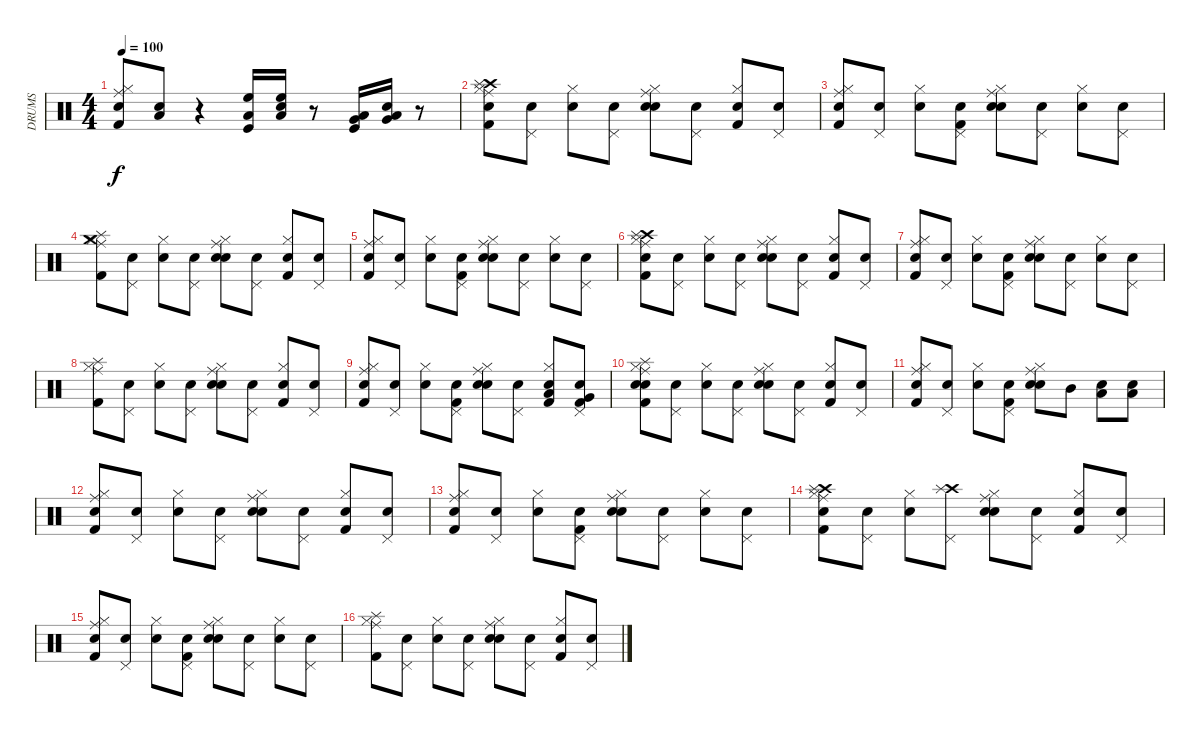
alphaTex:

\track ("DRUMS" "DRUMS") {instrument percussion}
\staff {score}
\articulation defaults
\ts (4 4)
\tempo 100
\clef neutral
\ks c
("Snare (hit)" "Ride (middle)" "Hi-Hat (closed)" "Kick (hit) 2").8{dy f} ("Snare (hit)" "Low Tom (hit)").8 r.4 ("High Floor Tom (hit)" "Kick (hit)" "Low Tom (hit)").16 ("Snare (hit)" "High Floor Tom (hit)" "Low Tom (hit)").16 r.8 ("Very Low Tom (hit)" "Kick (hit)" "Low Tom (hit)").16 ("Snare (hit)" "Very Low Tom (hit)" "Low Tom (hit)").16 r.8 |
("Ride (middle)" "Hi-Hat (closed)" "Kick (hit) 2" "Snare (hit) 2" "Crash high (hit)" "Splash (hit)").8 ("Snare (hit)" "Pedal Hi-Hat (hit)").8 ("Snare (hit)" "Hi-Hat (closed)").8 ("Snare (hit)" "Pedal Hi-Hat (hit)").8 ("Snare (hit)" "Ride (middle)" "Hi-Hat (closed)" "Snare (hit) 2").8 ("Snare (hit)" "Pedal Hi-Hat (hit)").8 ("Snare (hit)" "Hi-Hat (closed)" "Kick (hit) 2").8 ("Snare (hit)" "Pedal Hi-Hat (hit)").8 |
("Snare (hit)" "Ride (middle)" "Hi-Hat (closed)" "Kick (hit) 2").8 ("Snare (hit)" "Pedal Hi-Hat (hit)").8 ("Snare (hit)" "Hi-Hat (closed)").8 ("Snare (hit)" "Pedal Hi-Hat (hit)" "Kick (hit) 2").8 ("Snare (hit)" "Ride (middle)" "Hi-Hat (closed)" "Snare (hit) 2").8 ("Snare (hit)" "Pedal Hi-Hat (hit)").8 ("Snare (hit)" "Hi-Hat (closed)").8 ("Snare (hit)" "Pedal Hi-Hat (hit)").8 |
("Crash medium (hit)" "Splash (hit)" "Kick (hit) 2" "Ride (middle)" "Hi-Hat (closed)").8 ("Snare (hit)" "Pedal Hi-Hat (hit)").8 ("Snare (hit)" "Hi-Hat (closed)").8 ("Snare (hit)" "Pedal Hi-Hat (hit)").8 ("Snare (hit)" "Ride (middle)" "Hi-Hat (closed)" "Snare (hit) 2").8 ("Snare (hit)" "Pedal Hi-Hat (hit)").8 ("Snare (hit)" "Hi-Hat (closed)" "Kick (hit) 2").8 ("Snare (hit)" "Pedal Hi-Hat (hit)").8 |
("Snare (hit)" "Ride (middle)" "Hi-Hat (closed)" "Kick (hit) 2").8 ("Snare (hit)" "Pedal Hi-Hat (hit)").8 ("Snare (hit)" "Hi-Hat (closed)").8 ("Snare (hit)" "Pedal Hi-Hat (hit)" "Kick (hit) 2").8 ("Snare (hit)" "Ride (middle)" "Hi-Hat (closed)" "Snare (hit) 2").8 ("Snare (hit)" "Pedal Hi-Hat (hit)").8 ("Snare (hit)" "Hi-Hat (closed)").8 ("Snare (hit)" "Pedal Hi-Hat (hit)").8 |
("Snare (hit)" "Hi-Hat (closed)" "Ride (middle)" "Kick (hit) 2" "Crash high (hit)" "Splash (hit)").8 ("Snare (hit)" "Pedal Hi-Hat (hit)").8 ("Snare (hit)" "Hi-Hat (closed)").8 ("Snare (hit)" "Pedal Hi-Hat (hit)").8 ("Snare (hit)" "Ride (middle)" "Hi-Hat (closed)" "Snare (hit) 2").8 ("Snare (hit)" "Pedal Hi-Hat (hit)").8 ("Snare (hit)" "Hi-Hat (closed)" "Kick (hit) 2").8 ("Snare (hit)" "Pedal Hi-Hat (hit)").8 |
("Snare (hit)" "Ride (middle)" "Hi-Hat (closed)" "Kick (hit) 2").8 ("Snare (hit)" "Pedal Hi-Hat (hit)").8 ("Snare (hit)" "Hi-Hat (closed)").8 ("Snare (hit)" "Pedal Hi-Hat (hit)" "Kick (hit) 2").8 ("Snare (hit)" "Ride (middle)" "Hi-Hat (closed)" "Snare (hit) 2").8 ("Snare (hit)" "Pedal Hi-Hat (hit)").8 ("Snare (hit)" "Hi-Hat (closed)").8 ("Snare (hit)" "Pedal Hi-Hat (hit)").8 |
("Splash (hit)" "Kick (hit) 2" "Ride (middle)" "Hi-Hat (closed)").8 ("Snare (hit)" "Pedal Hi-Hat (hit)").8 ("Snare (hit)" "Hi-Hat (closed)").8 ("Snare (hit)" "Pedal Hi-Hat (hit)").8 ("Snare (hit)" "Ride (middle)" "Hi-Hat (closed)" "Snare (hit) 2").8 ("Snare (hit)" "Pedal Hi-Hat (hit)").8 ("Snare (hit)" "Hi-Hat (closed)" "Kick (hit) 2").8 ("Snare (hit)" "Pedal Hi-Hat (hit)").8 |
("Snare (hit)" "Ride (middle)" "Hi-Hat (closed)" "Kick (hit) 2").8 ("Snare (hit)" "Pedal Hi-Hat (hit)").8 ("Snare (hit)" "Hi-Hat (closed)").8 ("Snare (hit)" "Pedal Hi-Hat (hit)" "Kick (hit) 2").8 ("Snare (hit)" "Ride (middle)" "Hi-Hat (closed)" "Snare (hit) 2").8 ("Snare (hit)" "Pedal Hi-Hat (hit)").8 ("Snare (hit)" "Kick (hit) 2" "Low Tom (hit)" "Hi-Hat (closed)").8 ("Snare (hit)" "Very Low Tom (hit)" "Kick (hit) 2" "Pedal Hi-Hat (hit)").8 |
("Snare (hit)" "Ride (middle)" "Hi-Hat (closed)" "Kick (hit) 2" "Snare (hit) 2" "Splash (hit)").8 ("Snare (hit)" "Pedal Hi-Hat (hit)").8 ("Snare (hit)" "Hi-Hat (closed)").8 ("Snare (hit)" "Pedal Hi-Hat (hit)").8 ("Snare (hit)" "Ride (middle)" "Hi-Hat (closed)" "Snare (hit) 2").8 ("Snare (hit)" "Pedal Hi-Hat (hit)").8 ("Snare (hit)" "Hi-Hat (closed)" "Kick (hit) 2").8 ("Snare (hit)" "Pedal Hi-Hat (hit)").8 |
("Snare (hit)" "Ride (middle)" "Hi-Hat (closed)" "Kick (hit) 2").8 ("Snare (hit)" "Pedal Hi-Hat (hit)").8 ("Snare (hit)" "Hi-Hat (closed)").8 ("Snare (hit)" "Pedal Hi-Hat (hit)" "Kick (hit) 2").8 ("Snare (hit)" "Ride (middle)" "Hi-Hat (closed)" "Snare (hit) 2").8 "Mid Tom (hit)".8 ("Snare (hit)" "Low Tom (hit)").8 ("Snare (hit)" "Low Tom (hit)").8 |
("Snare (hit)" "Kick (hit) 2" "Ride (middle)" "Hi-Hat (closed)").8 ("Snare (hit)" "Pedal Hi-Hat (hit)").8 ("Snare (hit)" "Hi-Hat (closed)").8 ("Snare (hit)" "Pedal Hi-Hat (hit)").8 ("Snare (hit)" "Ride (middle)" "Hi-Hat (closed)" "Snare (hit) 2").8 ("Snare (hit)" "Pedal Hi-Hat (hit)").8 ("Snare (hit)" "Hi-Hat (closed)" "Kick (hit) 2").8 ("Snare (hit)" "Pedal Hi-Hat (hit)").8 |
("Snare (hit)" "Ride (middle)" "Hi-Hat (closed)" "Kick (hit) 2").8 ("Snare (hit)" "Pedal Hi-Hat (hit)").8 ("Snare (hit)" "Hi-Hat (closed)").8 ("Snare (hit)" "Pedal Hi-Hat (hit)" "Kick (hit) 2").8 ("Snare (hit)" "Ride (middle)" "Hi-Hat (closed)" "Snare (hit) 2").8 ("Snare (hit)" "Pedal Hi-Hat (hit)").8 ("Snare (hit)" "Hi-Hat (closed)").8 ("Snare (hit)" "Pedal Hi-Hat (hit)").8 |
("Snare (hit)" "Hi-Hat (closed)" "Ride (middle)" "Kick (hit) 2" "Crash high (hit)" "Splash (hit)").8 ("Snare (hit)" "Pedal Hi-Hat (hit)").8 ("Snare (hit)" "Hi-Hat (closed)").8 ("Crash high (hit)" "Splash (hit)" "Pedal Hi-Hat (hit)").8 ("Snare (hit)" "Ride (middle)" "Hi-Hat (closed)" "Snare (hit) 2").8 ("Snare (hit)" "Pedal Hi-Hat (hit)").8 ("Snare (hit)" "Hi-Hat (closed)" "Kick (hit) 2").8 ("Snare (hit)" "Pedal Hi-Hat (hit)").8 |
("Snare (hit)" "Ride (middle)" "Hi-Hat (closed)" "Kick (hit) 2").8 ("Snare (hit)" "Pedal Hi-Hat (hit)").8 ("Snare (hit)" "Hi-Hat (closed)").8 ("Snare (hit)" "Pedal Hi-Hat (hit)" "Kick (hit) 2").8 ("Snare (hit)" "Ride (middle)" "Hi-Hat (closed)" "Snare (hit) 2").8 ("Snare (hit)" "Pedal Hi-Hat (hit)").8 ("Snare (hit)" "Hi-Hat (closed)").8 ("Snare (hit)" "Pedal Hi-Hat (hit)").8 |
("Splash (hit)" "Kick (hit) 2" "Ride (middle)" "Hi-Hat (closed)").8 ("Snare (hit)" "Pedal Hi-Hat (hit)").8 ("Snare (hit)" "Hi-Hat (closed)").8 ("Snare (hit)" "Pedal Hi-Hat (hit)").8 ("Snare (hit)" "Ride (middle)" "Hi-Hat (closed)" "Snare (hit) 2").8 ("Snare (hit)" "Pedal Hi-Hat (hit)").8 ("Snare (hit)" "Hi-Hat (closed)" "Kick (hit) 2").8 ("Snare (hit)" "Pedal Hi-Hat (hit)").8
